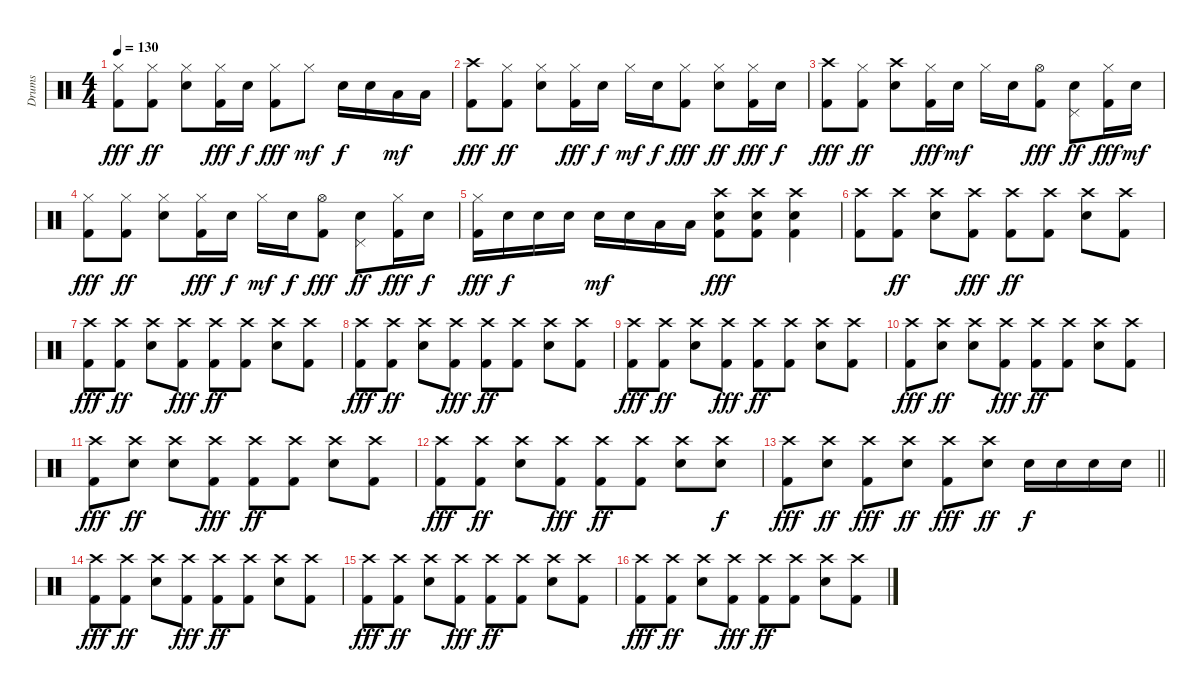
\track ("Drums" "Drums") {instrument percussion}
\staff {score}
\articulation defaults
\ts (4 4)
\tempo 130
\clef neutral
\ks c
("Hi-Hat (closed)" "Kick (hit) 2").8{dy fff} ("Hi-Hat (closed)" "Kick (hit) 2").8{dy ff} ("Hi-Hat (closed)" "Snare (hit) 2").8 ("Hi-Hat (closed)" "Kick (hit) 2").16{dy fff} "Snare (hit) 2".16{dy f} ("Hi-Hat (closed)" "Kick (hit) 2").8{dy fff} "Hi-Hat (closed)".8{dy mf} "Snare (hit) 2".16{dy f} "Snare (hit) 2".16 "Low Tom (hit)".16{dy mf} "Low Tom (hit)".16 |
("Crash high (hit)" "Kick (hit) 2").8{dy fff} ("Hi-Hat (closed)" "Kick (hit) 2").8{dy ff} ("Hi-Hat (closed)" "Snare (hit) 2").8 ("Hi-Hat (closed)" "Kick (hit) 2").16{dy fff} "Snare (hit) 2".16{dy f} "Hi-Hat (closed)".16{dy mf} "Snare (hit) 2".16{dy f} ("Hi-Hat (closed)" "Kick (hit) 2").8{dy fff} ("Hi-Hat (closed)" "Snare (hit) 2").8{dy ff} ("Hi-Hat (closed)" "Kick (hit) 2").16{dy fff} "Snare (hit) 2".16{dy f} |
("Crash high (hit)" "Kick (hit) 2").8{dy fff} ("Hi-Hat (closed)" "Kick (hit) 2").8{dy ff} ("Crash high (hit)" "Snare (hit) 2").8 ("Hi-Hat (closed)" "Kick (hit) 2").16{dy fff} "Snare (hit) 2".16{dy mf} "Hi-Hat (closed)".16 "Snare (hit) 2".16 ("Hi-Hat (open)" "Kick (hit) 2").8{dy fff} ("Pedal Hi-Hat (hit)" "Snare (hit) 2").8{dy ff} ("Hi-Hat (closed)" "Kick (hit) 2").16{dy fff} "Snare (hit) 2".16{dy mf} |
("Hi-Hat (closed)" "Kick (hit) 2").8{dy fff} ("Hi-Hat (closed)" "Kick (hit) 2").8{dy ff} ("Hi-Hat (closed)" "Snare (hit) 2").8 ("Hi-Hat (closed)" "Kick (hit) 2").16{dy fff} "Snare (hit) 2".16{dy f} "Hi-Hat (closed)".16{dy mf} "Snare (hit) 2".16{dy f} ("Hi-Hat (open)" "Kick (hit) 2").8{dy fff} ("Pedal Hi-Hat (hit)" "Snare (hit) 2").8{dy ff} ("Hi-Hat (closed)" "Kick (hit) 2").16{dy fff} "Snare (hit) 2".16{dy f} |
("Hi-Hat (closed)" "Kick (hit) 2").16{dy fff} "Snare (hit) 2".16{dy f} "Snare (hit) 2".16 "Snare (hit) 2".16 "Snare (hit) 2".16{dy mf} "Snare (hit) 2".16 "Low Tom (hit)".16 "Low Tom (hit)".16 ("Crash high (hit)" "Snare (hit) 2" "Kick (hit) 2").8{dy fff} ("Crash high (hit)" "Snare (hit) 2" "Kick (hit) 2").8 ("Crash high (hit)" "Snare (hit) 2" "Kick (hit) 2").4 |
("Crash high (hit)" "Kick (hit) 2").8 ("Crash high (hit)" "Kick (hit) 2").8{dy ff} ("Crash high (hit)" "Snare (hit) 2").8 ("Crash high (hit)" "Kick (hit) 2").8{dy fff} ("Crash high (hit)" "Kick (hit) 2").8{dy ff} ("Crash high (hit)" "Kick (hit) 2").8 ("Crash high (hit)" "Snare (hit) 2").8 ("Crash high (hit)" "Kick (hit) 2").8 |
("Crash high (hit)" "Kick (hit) 2").8{dy fff} ("Crash high (hit)" "Kick (hit) 2").8{dy ff} ("Crash high (hit)" "Snare (hit) 2").8 ("Crash high (hit)" "Kick (hit) 2").8{dy fff} ("Crash high (hit)" "Kick (hit) 2").8{dy ff} ("Crash high (hit)" "Kick (hit) 2").8 ("Crash high (hit)" "Snare (hit) 2").8 ("Crash high (hit)" "Kick (hit) 2").8 |
("Crash high (hit)" "Kick (hit) 2").8{dy fff} ("Crash high (hit)" "Kick (hit) 2").8{dy ff} ("Crash high (hit)" "Snare (hit) 2").8 ("Crash high (hit)" "Kick (hit) 2").8{dy fff} ("Crash high (hit)" "Kick (hit) 2").8{dy ff} ("Crash high (hit)" "Kick (hit) 2").8 ("Crash high (hit)" "Snare (hit) 2").8 ("Crash high (hit)" "Kick (hit) 2").8 |
("Crash high (hit)" "Kick (hit) 2").8{dy fff} ("Crash high (hit)" "Kick (hit) 2").8{dy ff} ("Crash high (hit)" "Snare (hit) 2").8 ("Crash high (hit)" "Kick (hit) 2").8{dy fff} ("Crash high (hit)" "Kick (hit) 2").8{dy ff} ("Crash high (hit)" "Kick (hit) 2").8 ("Crash high (hit)" "Snare (hit) 2").8 ("Crash high (hit)" "Kick (hit) 2").8 |
("Crash high (hit)" "Kick (hit) 2").8{dy fff} ("Crash high (hit)" "Snare (hit) 2").8{dy ff} ("Crash high (hit)" "Snare (hit) 2").8 ("Crash high (hit)" "Kick (hit) 2").8{dy fff} ("Crash high (hit)" "Kick (hit) 2").8{dy ff} ("Crash high (hit)" "Kick (hit) 2").8 ("Crash high (hit)" "Snare (hit) 2").8 ("Crash high (hit)" "Kick (hit) 2").8 |
("Crash high (hit)" "Kick (hit) 2").8{dy fff} ("Crash high (hit)" "Snare (hit) 2").8{dy ff} ("Crash high (hit)" "Snare (hit) 2").8 ("Crash high (hit)" "Kick (hit) 2").8{dy fff} ("Crash high (hit)" "Kick (hit) 2").8{dy ff} ("Crash high (hit)" "Kick (hit) 2").8 ("Crash high (hit)" "Snare (hit) 2").8 ("Crash high (hit)" "Kick (hit) 2").8 |
("Crash high (hit)" "Kick (hit) 2").8{dy fff} ("Crash high (hit)" "Kick (hit) 2").8{dy ff} ("Crash high (hit)" "Snare (hit) 2").8 ("Crash high (hit)" "Kick (hit) 2").8{dy fff} ("Crash high (hit)" "Kick (hit) 2").8{dy ff} ("Crash high (hit)" "Kick (hit) 2").8 ("Crash high (hit)" "Snare (hit) 2").8 ("Crash high (hit)" "Snare (hit) 2").8{dy f} |
\barLineRight lightlight
("Crash high (hit)" "Kick (hit) 2").8{dy fff} ("Crash high (hit)" "Snare (hit) 2").8{dy ff} ("Crash high (hit)" "Kick (hit) 2").8{dy fff} ("Crash high (hit)" "Snare (hit) 2").8{dy ff} ("Crash high (hit)" "Kick (hit) 2").8{dy fff} ("Crash high (hit)" "Snare (hit) 2").8{dy ff} "Snare (hit) 2".16{dy f} "Snare (hit) 2".16 "Snare (hit) 2".16 "Snare (hit) 2".16 |
("Crash high (hit)" "Kick (hit) 2").8{dy fff} ("Crash high (hit)" "Kick (hit) 2").8{dy ff} ("Crash high (hit)" "Snare (hit) 2").8 ("Crash high (hit)" "Kick (hit) 2").8{dy fff} ("Crash high (hit)" "Kick (hit) 2").8{dy ff} ("Crash high (hit)" "Kick (hit) 2").8 ("Crash high (hit)" "Snare (hit) 2").8 ("Crash high (hit)" "Kick (hit) 2").8 |
("Crash high (hit)" "Kick (hit) 2").8{dy fff} ("Crash high (hit)" "Kick (hit) 2").8{dy ff} ("Crash high (hit)" "Snare (hit) 2").8 ("Crash high (hit)" "Kick (hit) 2").8{dy fff} ("Crash high (hit)" "Kick (hit) 2").8{dy ff} ("Crash high (hit)" "Kick (hit) 2").8 ("Crash high (hit)" "Snare (hit) 2").8 ("Crash high (hit)" "Kick (hit) 2").8 |
("Crash high (hit)" "Kick (hit) 2").8{dy fff} ("Crash high (hit)" "Kick (hit) 2").8{dy ff} ("Crash high (hit)" "Snare (hit) 2").8 ("Crash high (hit)" "Kick (hit) 2").8{dy fff} ("Crash high (hit)" "Kick (hit) 2").8{dy ff} ("Crash high (hit)" "Kick (hit) 2").8 ("Crash high (hit)" "Snare (hit) 2").8 ("Crash high (hit)" "Kick (hit) 2").8
